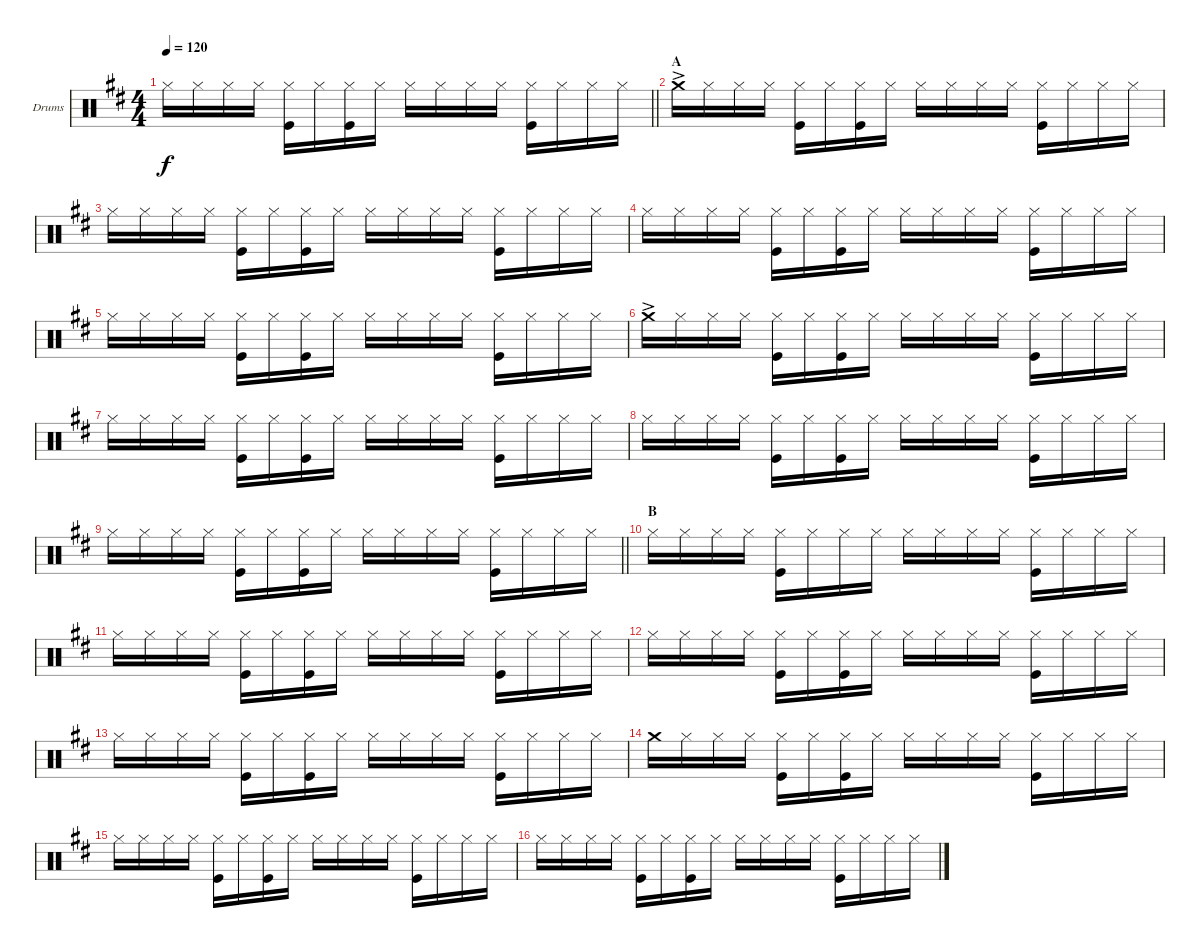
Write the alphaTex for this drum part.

\bracketExtendMode groupsimilarinstruments
\firstSystemTrackNameOrientation horizontal
\otherSystemsTrackNameOrientation horizontal
\track ("Drumkit" "Drums") {instrument percussion}
\staff {score}
\articulation defaults
\ts (4 4)
\tempo 120
\clef neutral
\barLineRight lightlight
\ks d "Hi-Hat (closed)".16{dy f} "Hi-Hat (closed)".16 "Hi-Hat (closed)".16 "Hi-Hat (closed)".16
("Hi-Hat (closed)" "Kick (hit)").16 "Hi-Hat (closed)".16 ("Hi-Hat (closed)" "Kick (hit)").16 "Hi-Hat (closed)".16 "Hi-Hat (closed)".16 "Hi-Hat (closed)".16 "Hi-Hat (closed)".16 "Hi-Hat (closed)".16 ("Hi-Hat (closed)" "Kick (hit)").16 "Hi-Hat (closed)".16 "Hi-Hat (closed)".16 "Hi-Hat (closed)".16 |
\section ("" "A")
"Crash medium (hit)"{ac}.16 "Hi-Hat (closed)".16 "Hi-Hat (closed)".16 "Hi-Hat (closed)".16 ("Hi-Hat (closed)" "Kick (hit)").16 "Hi-Hat (closed)".16 ("Hi-Hat (closed)" "Kick (hit)").16 "Hi-Hat (closed)".16 "Hi-Hat (closed)".16 "Hi-Hat (closed)".16 "Hi-Hat (closed)".16 "Hi-Hat (closed)".16 ("Hi-Hat (closed)" "Kick (hit)").16 "Hi-Hat (closed)".16 "Hi-Hat (closed)".16 "Hi-Hat (closed)".16 |
"Hi-Hat (closed)".16 "Hi-Hat (closed)".16 "Hi-Hat (closed)".16 "Hi-Hat (closed)".16 ("Hi-Hat (closed)" "Kick (hit)").16 "Hi-Hat (closed)".16 ("Hi-Hat (closed)" "Kick (hit)").16 "Hi-Hat (closed)".16 "Hi-Hat (closed)".16 "Hi-Hat (closed)".16 "Hi-Hat (closed)".16 "Hi-Hat (closed)".16 ("Hi-Hat (closed)" "Kick (hit)").16 "Hi-Hat (closed)".16 "Hi-Hat (closed)".16 "Hi-Hat (closed)".16 |
"Hi-Hat (closed)".16 "Hi-Hat (closed)".16 "Hi-Hat (closed)".16 "Hi-Hat (closed)".16 ("Hi-Hat (closed)" "Kick (hit)").16 "Hi-Hat (closed)".16 ("Hi-Hat (closed)" "Kick (hit)").16 "Hi-Hat (closed)".16 "Hi-Hat (closed)".16 "Hi-Hat (closed)".16 "Hi-Hat (closed)".16 "Hi-Hat (closed)".16 ("Hi-Hat (closed)" "Kick (hit)").16 "Hi-Hat (closed)".16 "Hi-Hat (closed)".16 "Hi-Hat (closed)".16 |
"Hi-Hat (closed)".16 "Hi-Hat (closed)".16 "Hi-Hat (closed)".16 "Hi-Hat (closed)".16 ("Hi-Hat (closed)" "Kick (hit)").16 "Hi-Hat (closed)".16 ("Hi-Hat (closed)" "Kick (hit)").16 "Hi-Hat (closed)".16 "Hi-Hat (closed)".16 "Hi-Hat (closed)".16 "Hi-Hat (closed)".16 "Hi-Hat (closed)".16 ("Hi-Hat (closed)" "Kick (hit)").16 "Hi-Hat (closed)".16 "Hi-Hat (closed)".16 "Hi-Hat (closed)".16 |
"Crash medium (hit)"{ac}.16 "Hi-Hat (closed)".16 "Hi-Hat (closed)".16 "Hi-Hat (closed)".16 ("Hi-Hat (closed)" "Kick (hit)").16 "Hi-Hat (closed)".16 ("Hi-Hat (closed)" "Kick (hit)").16 "Hi-Hat (closed)".16 "Hi-Hat (closed)".16 "Hi-Hat (closed)".16 "Hi-Hat (closed)".16 "Hi-Hat (closed)".16 ("Hi-Hat (closed)" "Kick (hit)").16 "Hi-Hat (closed)".16 "Hi-Hat (closed)".16 "Hi-Hat (closed)".16 |
"Hi-Hat (closed)".16 "Hi-Hat (closed)".16 "Hi-Hat (closed)".16 "Hi-Hat (closed)".16 ("Hi-Hat (closed)" "Kick (hit)").16 "Hi-Hat (closed)".16 ("Hi-Hat (closed)" "Kick (hit)").16 "Hi-Hat (closed)".16 "Hi-Hat (closed)".16 "Hi-Hat (closed)".16 "Hi-Hat (closed)".16 "Hi-Hat (closed)".16 ("Hi-Hat (closed)" "Kick (hit)").16 "Hi-Hat (closed)".16 "Hi-Hat (closed)".16 "Hi-Hat (closed)".16 |
"Hi-Hat (closed)".16 "Hi-Hat (closed)".16 "Hi-Hat (closed)".16 "Hi-Hat (closed)".16 ("Hi-Hat (closed)" "Kick (hit)").16 "Hi-Hat (closed)".16 ("Hi-Hat (closed)" "Kick (hit)").16 "Hi-Hat (closed)".16 "Hi-Hat (closed)".16 "Hi-Hat (closed)".16 "Hi-Hat (closed)".16 "Hi-Hat (closed)".16 ("Hi-Hat (closed)" "Kick (hit)").16 "Hi-Hat (closed)".16 "Hi-Hat (closed)".16 "Hi-Hat (closed)".16 |
\barLineRight lightlight "Hi-Hat (closed)".16 "Hi-Hat (closed)".16 "Hi-Hat (closed)".16 "Hi-Hat (closed)".16
("Hi-Hat (closed)" "Kick (hit)").16 "Hi-Hat (closed)".16 ("Hi-Hat (closed)" "Kick (hit)").16 "Hi-Hat (closed)".16 "Hi-Hat (closed)".16 "Hi-Hat (closed)".16 "Hi-Hat (closed)".16 "Hi-Hat (closed)".16 ("Hi-Hat (closed)" "Kick (hit)").16 "Hi-Hat (closed)".16 "Hi-Hat (closed)".16 "Hi-Hat (closed)".16 |
\section ("" "B")
"Hi-Hat (closed)".16 "Hi-Hat (closed)".16 "Hi-Hat (closed)".16 "Hi-Hat (closed)".16 ("Hi-Hat (closed)" "Kick (hit)").16 "Hi-Hat (closed)".16 "Hi-Hat (closed)".16 "Hi-Hat (closed)".16 "Hi-Hat (closed)".16 "Hi-Hat (closed)".16 "Hi-Hat (closed)".16 "Hi-Hat (closed)".16 ("Hi-Hat (closed)" "Kick (hit)").16 "Hi-Hat (closed)".16 "Hi-Hat (closed)".16 "Hi-Hat (closed)".16 |
"Hi-Hat (closed)".16 "Hi-Hat (closed)".16 "Hi-Hat (closed)".16 "Hi-Hat (closed)".16 ("Hi-Hat (closed)" "Kick (hit)").16 "Hi-Hat (closed)".16 ("Hi-Hat (closed)" "Kick (hit)").16 "Hi-Hat (closed)".16 "Hi-Hat (closed)".16 "Hi-Hat (closed)".16 "Hi-Hat (closed)".16 "Hi-Hat (closed)".16 ("Hi-Hat (closed)" "Kick (hit)").16 "Hi-Hat (closed)".16 "Hi-Hat (closed)".16 "Hi-Hat (closed)".16 |
"Hi-Hat (closed)".16 "Hi-Hat (closed)".16 "Hi-Hat (closed)".16 "Hi-Hat (closed)".16 ("Hi-Hat (closed)" "Kick (hit)").16 "Hi-Hat (closed)".16 ("Hi-Hat (closed)" "Kick (hit)").16 "Hi-Hat (closed)".16 "Hi-Hat (closed)".16 "Hi-Hat (closed)".16 "Hi-Hat (closed)".16 "Hi-Hat (closed)".16 ("Hi-Hat (closed)" "Kick (hit)").16 "Hi-Hat (closed)".16 "Hi-Hat (closed)".16 "Hi-Hat (closed)".16 |
"Hi-Hat (closed)".16 "Hi-Hat (closed)".16 "Hi-Hat (closed)".16 "Hi-Hat (closed)".16 ("Hi-Hat (closed)" "Kick (hit)").16 "Hi-Hat (closed)".16 ("Hi-Hat (closed)" "Kick (hit)").16 "Hi-Hat (closed)".16 "Hi-Hat (closed)".16 "Hi-Hat (closed)".16 "Hi-Hat (closed)".16 "Hi-Hat (closed)".16 ("Hi-Hat (closed)" "Kick (hit)").16 "Hi-Hat (closed)".16 "Hi-Hat (closed)".16 "Hi-Hat (closed)".16 |
"Crash medium (hit)".16 "Hi-Hat (closed)".16 "Hi-Hat (closed)".16 "Hi-Hat (closed)".16 ("Hi-Hat (closed)" "Kick (hit)").16 "Hi-Hat (closed)".16 ("Hi-Hat (closed)" "Kick (hit)").16 "Hi-Hat (closed)".16 "Hi-Hat (closed)".16 "Hi-Hat (closed)".16 "Hi-Hat (closed)".16 "Hi-Hat (closed)".16 ("Hi-Hat (closed)" "Kick (hit)").16 "Hi-Hat (closed)".16 "Hi-Hat (closed)".16 "Hi-Hat (closed)".16 |
"Hi-Hat (closed)".16 "Hi-Hat (closed)".16 "Hi-Hat (closed)".16 "Hi-Hat (closed)".16 ("Hi-Hat (closed)" "Kick (hit)").16 "Hi-Hat (closed)".16 ("Hi-Hat (closed)" "Kick (hit)").16 "Hi-Hat (closed)".16 "Hi-Hat (closed)".16 "Hi-Hat (closed)".16 "Hi-Hat (closed)".16 "Hi-Hat (closed)".16 ("Hi-Hat (closed)" "Kick (hit)").16 "Hi-Hat (closed)".16 "Hi-Hat (closed)".16 "Hi-Hat (closed)".16 |
"Hi-Hat (closed)".16 "Hi-Hat (closed)".16 "Hi-Hat (closed)".16 "Hi-Hat (closed)".16 ("Hi-Hat (closed)" "Kick (hit)").16 "Hi-Hat (closed)".16 ("Hi-Hat (closed)" "Kick (hit)").16 "Hi-Hat (closed)".16 "Hi-Hat (closed)".16 "Hi-Hat (closed)".16 "Hi-Hat (closed)".16 "Hi-Hat (closed)".16 ("Hi-Hat (closed)" "Kick (hit)").16 "Hi-Hat (closed)".16 "Hi-Hat (closed)".16 "Hi-Hat (closed)".16
